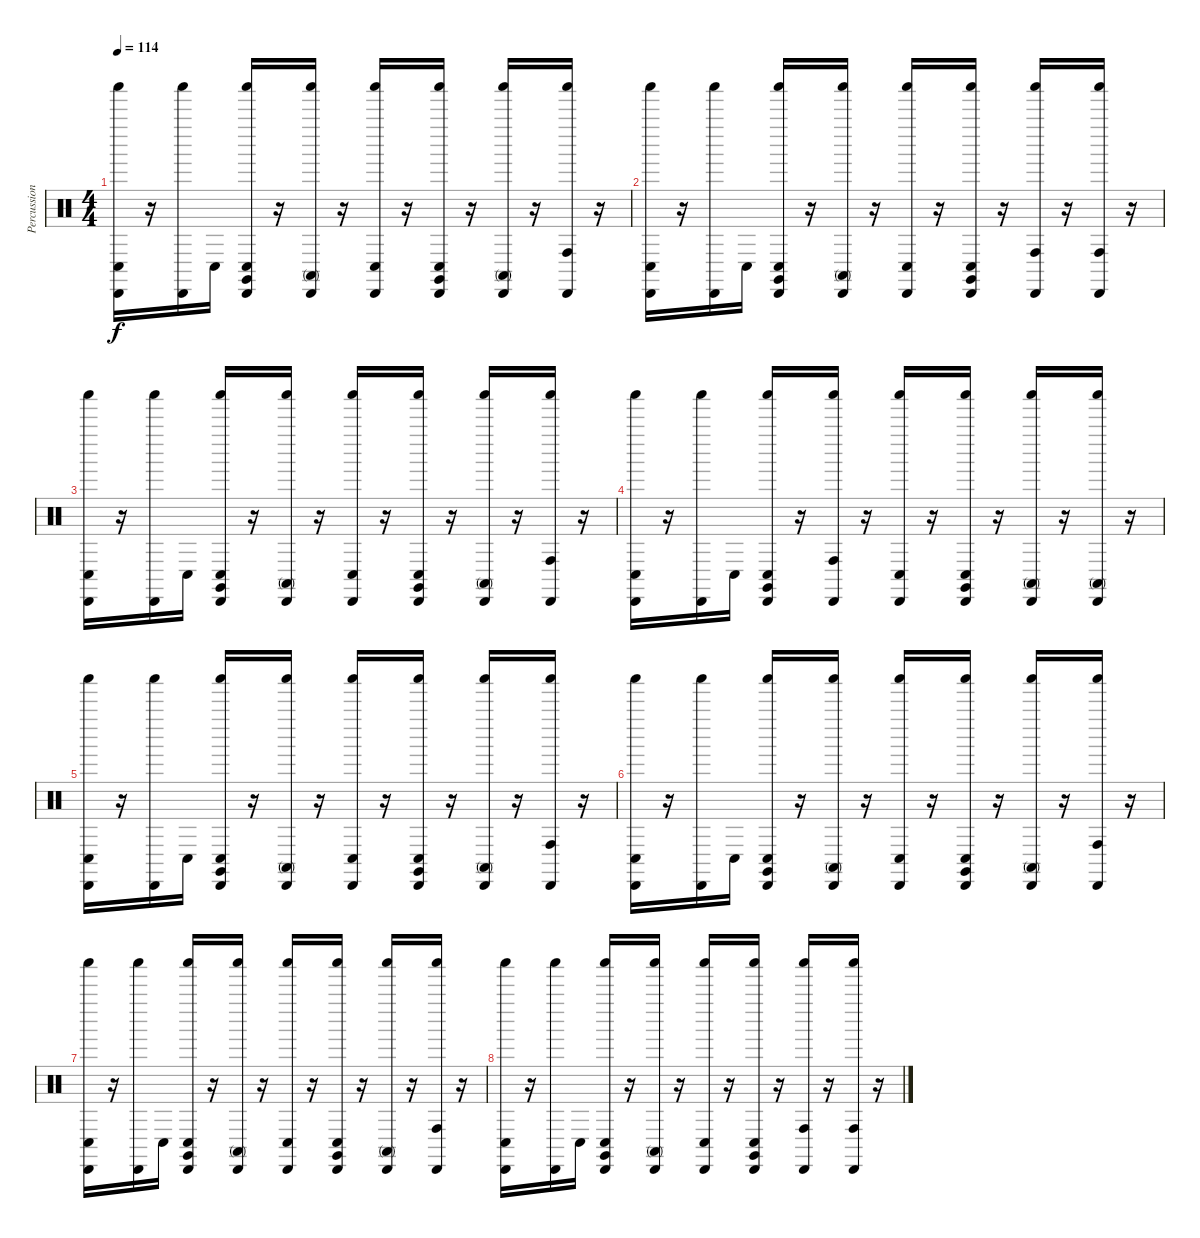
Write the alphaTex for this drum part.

\track ("Percussion (Std Set)" "Percussion") {instrument percussion}
\staff {score}
\articulation defaults
\ts (4 4)
\tempo 114
\clef neutral
\ks c
("Cabasa (hit)" "Shaker (hit)" "Conga low (hit)").16{dy f} r.16 ("Shaker (hit)" "Cabasa (hit)").16 "Conga low (hit)".16 ("Conga low (hit)" "Cabasa (hit)" "Claves (hit)" "Shaker (hit)").16 r.16 ("Cabasa (hit)" "Conga high (mute)" "Shaker (hit)").16 r.16 ("Shaker (hit)" "Conga low (hit)" "Cabasa (hit)").16 r.16 ("Shaker (hit)" "Claves (hit)" "Conga low (hit)" "Cabasa (hit)").16 r.16 ("Conga high (mute)" "Cabasa (hit)" "Shaker (hit)").16 r.16 ("Shaker (hit)" "Cabasa (hit)" "Conga high (hit)").16 r.16 |
("Shaker (hit)" "Conga low (hit)" "Cabasa (hit)").16 r.16 ("Cabasa (hit)" "Shaker (hit)").16 "Conga low (hit)".16 ("Cabasa (hit)" "Shaker (hit)" "Conga low (hit)" "Claves (hit)").16 r.16 ("Conga high (mute)" "Shaker (hit)" "Cabasa (hit)").16 r.16 ("Conga low (hit)" "Cabasa (hit)" "Shaker (hit)").16 r.16 ("Cabasa (hit)" "Shaker (hit)" "Conga low (hit)" "Claves (hit)").16 r.16 ("Conga high (hit)" "Shaker (hit)" "Cabasa (hit)").16 r.16 ("Shaker (hit)" "Conga high (hit)" "Cabasa (hit)").16 r.16 |
("Conga low (hit)" "Shaker (hit)" "Cabasa (hit)").16 r.16 ("Cabasa (hit)" "Shaker (hit)").16 "Conga low (hit)".16 ("Conga low (hit)" "Cabasa (hit)" "Claves (hit)" "Shaker (hit)").16 r.16 ("Conga high (mute)" "Shaker (hit)" "Cabasa (hit)").16 r.16 ("Shaker (hit)" "Conga low (hit)" "Cabasa (hit)").16 r.16 ("Cabasa (hit)" "Claves (hit)" "Conga low (hit)" "Shaker (hit)").16 r.16 ("Conga high (mute)" "Shaker (hit)" "Cabasa (hit)").16 r.16 ("Shaker (hit)" "Cabasa (hit)" "Conga high (hit)").16 r.16 |
("Conga low (hit)" "Cabasa (hit)" "Shaker (hit)").16 r.16 ("Cabasa (hit)" "Shaker (hit)").16 "Conga low (hit)".16 ("Claves (hit)" "Shaker (hit)" "Cabasa (hit)" "Conga low (hit)").16 r.16 ("Conga high (hit)" "Cabasa (hit)" "Shaker (hit)").16 r.16 ("Cabasa (hit)" "Conga low (hit)" "Shaker (hit)").16 r.16 ("Shaker (hit)" "Conga low (hit)" "Claves (hit)" "Cabasa (hit)").16 r.16 ("Shaker (hit)" "Cabasa (hit)" "Conga high (mute)").16 r.16 ("Conga high (mute)" "Cabasa (hit)" "Shaker (hit)").16 r.16 |
("Conga low (hit)" "Shaker (hit)" "Cabasa (hit)").16 r.16 ("Shaker (hit)" "Cabasa (hit)").16 "Conga low (hit)".16 ("Cabasa (hit)" "Claves (hit)" "Conga low (hit)" "Shaker (hit)").16 r.16 ("Shaker (hit)" "Conga high (mute)" "Cabasa (hit)").16 r.16 ("Conga low (hit)" "Shaker (hit)" "Cabasa (hit)").16 r.16 ("Claves (hit)" "Cabasa (hit)" "Conga low (hit)" "Shaker (hit)").16 r.16 ("Conga high (mute)" "Cabasa (hit)" "Shaker (hit)").16 r.16 ("Cabasa (hit)" "Conga high (hit)" "Shaker (hit)").16 r.16 |
("Shaker (hit)" "Conga low (hit)" "Cabasa (hit)").16 r.16 ("Cabasa (hit)" "Shaker (hit)").16 "Conga low (hit)".16 ("Cabasa (hit)" "Conga low (hit)" "Shaker (hit)" "Claves (hit)").16 r.16 ("Shaker (hit)" "Conga high (mute)" "Cabasa (hit)").16 r.16 ("Shaker (hit)" "Conga low (hit)" "Cabasa (hit)").16 r.16 ("Conga low (hit)" "Cabasa (hit)" "Claves (hit)" "Shaker (hit)").16 r.16 ("Conga high (mute)" "Cabasa (hit)" "Shaker (hit)").16 r.16 ("Cabasa (hit)" "Shaker (hit)" "Conga high (hit)").16 r.16 |
("Shaker (hit)" "Cabasa (hit)" "Conga low (hit)").16 r.16 ("Shaker (hit)" "Cabasa (hit)").16 "Conga low (hit)".16 ("Cabasa (hit)" "Conga low (hit)" "Shaker (hit)" "Claves (hit)").16 r.16 ("Shaker (hit)" "Conga high (mute)" "Cabasa (hit)").16 r.16 ("Cabasa (hit)" "Conga low (hit)" "Shaker (hit)").16 r.16 ("Conga low (hit)" "Claves (hit)" "Shaker (hit)" "Cabasa (hit)").16 r.16 ("Shaker (hit)" "Cabasa (hit)" "Conga high (mute)").16 r.16 ("Shaker (hit)" "Cabasa (hit)" "Conga high (hit)").16 r.16 |
("Conga low (hit)" "Cabasa (hit)" "Shaker (hit)").16 r.16 ("Shaker (hit)" "Cabasa (hit)").16 "Conga low (hit)".16 ("Shaker (hit)" "Conga low (hit)" "Cabasa (hit)" "Claves (hit)").16 r.16 ("Cabasa (hit)" "Conga high (mute)" "Shaker (hit)").16 r.16 ("Shaker (hit)" "Cabasa (hit)" "Conga low (hit)").16 r.16 ("Claves (hit)" "Cabasa (hit)" "Conga low (hit)" "Shaker (hit)").16 r.16 ("Cabasa (hit)" "Conga high (hit)" "Shaker (hit)").16 r.16 ("Cabasa (hit)" "Shaker (hit)" "Conga high (hit)").16 r.16
